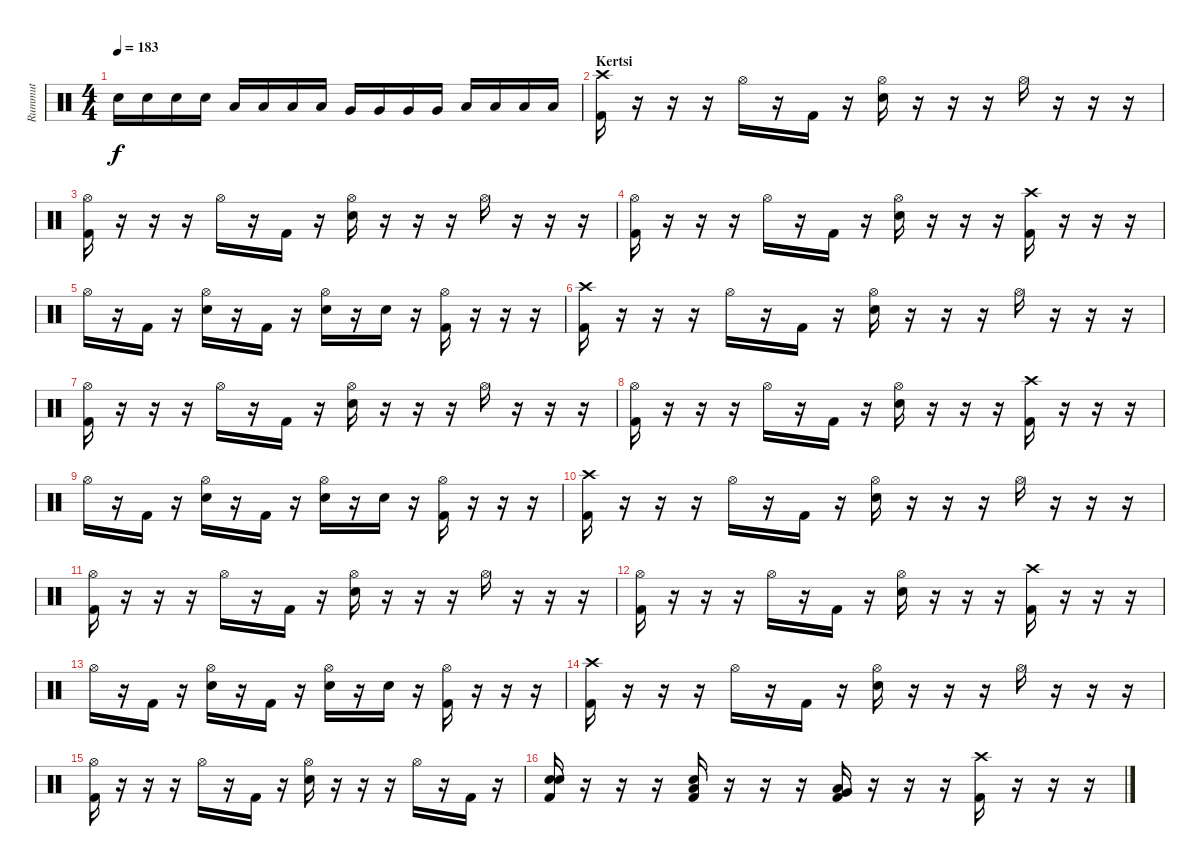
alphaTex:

\track ("Rummut" "Rummut") {instrument percussion}
\staff {score}
\articulation defaults
\ts (4 4)
\tempo 183
\clef neutral
\ks c "Electric Snare (hit)".16{dy f} "Electric Snare (hit)".16 "Electric Snare (hit)".16 "Electric Snare (hit)".16 "Low Tom (hit)".16 "Low Tom (hit)".16 "Low Tom (hit)".16 "Low Tom (hit)".16 "Very Low Tom (hit)".16 "Very Low Tom (hit)".16 "Very Low Tom (hit)".16 "Very Low Tom (hit)".16 "Low Floor Tom (hit)".16 "Low Floor Tom (hit)".16 "Low Floor Tom (hit)".16 "Low Floor Tom (hit)".16
|
\section ("" "Kertsi")
("Crash high (hit)" "Kick (hit) 2").16 r.16 r.16 r.16 "Hi-Hat (open)".16 r.16 "Kick (hit) 2".16 r.16 ("Hi-Hat (open)" "Electric Snare (hit)").16 r.16 r.16 r.16 "Hi-Hat (open)".16 r.16 r.16 r.16 |
("Hi-Hat (open)" "Kick (hit) 2").16 r.16 r.16 r.16 "Hi-Hat (open)".16 r.16 "Kick (hit) 2".16 r.16 ("Hi-Hat (open)" "Electric Snare (hit)").16 r.16 r.16 r.16 "Hi-Hat (open)".16 r.16 r.16 r.16 |
("Hi-Hat (open)" "Kick (hit) 2").16 r.16 r.16 r.16 "Hi-Hat (open)".16 r.16 "Kick (hit) 2".16 r.16 ("Hi-Hat (open)" "Electric Snare (hit)").16 r.16 r.16 r.16 ("Crash high (hit)" "Kick (hit) 2").16 r.16 r.16 r.16 |
"Hi-Hat (open)".16 r.16 "Kick (hit) 2".16 r.16 ("Hi-Hat (open)" "Electric Snare (hit)").16 r.16 "Kick (hit) 2".16 r.16 ("Hi-Hat (open)" "Electric Snare (hit)").16 r.16 "Electric Snare (hit)".16 r.16 ("Hi-Hat (open)" "Kick (hit) 2").16 r.16 r.16 r.16 |
("Crash high (hit)" "Kick (hit) 2").16 r.16 r.16 r.16 "Hi-Hat (open)".16 r.16 "Kick (hit) 2".16 r.16 ("Hi-Hat (open)" "Electric Snare (hit)").16 r.16 r.16 r.16 "Hi-Hat (open)".16 r.16 r.16 r.16 |
("Hi-Hat (open)" "Kick (hit) 2").16 r.16 r.16 r.16 "Hi-Hat (open)".16 r.16 "Kick (hit) 2".16 r.16 ("Hi-Hat (open)" "Electric Snare (hit)").16 r.16 r.16 r.16 "Hi-Hat (open)".16 r.16 r.16 r.16 |
("Hi-Hat (open)" "Kick (hit) 2").16 r.16 r.16 r.16 "Hi-Hat (open)".16 r.16 "Kick (hit) 2".16 r.16 ("Hi-Hat (open)" "Electric Snare (hit)").16 r.16 r.16 r.16 ("Crash high (hit)" "Kick (hit) 2").16 r.16 r.16 r.16 |
"Hi-Hat (open)".16 r.16 "Kick (hit) 2".16 r.16 ("Hi-Hat (open)" "Electric Snare (hit)").16 r.16 "Kick (hit) 2".16 r.16 ("Hi-Hat (open)" "Electric Snare (hit)").16 r.16 "Electric Snare (hit)".16 r.16 ("Hi-Hat (open)" "Kick (hit) 2").16 r.16 r.16 r.16 |
("Crash high (hit)" "Kick (hit) 2").16 r.16 r.16 r.16 "Hi-Hat (open)".16 r.16 "Kick (hit) 2".16 r.16 ("Hi-Hat (open)" "Electric Snare (hit)").16 r.16 r.16 r.16 "Hi-Hat (open)".16 r.16 r.16 r.16 |
("Hi-Hat (open)" "Kick (hit) 2").16 r.16 r.16 r.16 "Hi-Hat (open)".16 r.16 "Kick (hit) 2".16 r.16 ("Hi-Hat (open)" "Electric Snare (hit)").16 r.16 r.16 r.16 "Hi-Hat (open)".16 r.16 r.16 r.16 |
("Hi-Hat (open)" "Kick (hit) 2").16 r.16 r.16 r.16 "Hi-Hat (open)".16 r.16 "Kick (hit) 2".16 r.16 ("Hi-Hat (open)" "Electric Snare (hit)").16 r.16 r.16 r.16 ("Crash high (hit)" "Kick (hit) 2").16 r.16 r.16 r.16 |
"Hi-Hat (open)".16 r.16 "Kick (hit) 2".16 r.16 ("Hi-Hat (open)" "Electric Snare (hit)").16 r.16 "Kick (hit) 2".16 r.16 ("Hi-Hat (open)" "Electric Snare (hit)").16 r.16 "Electric Snare (hit)".16 r.16 ("Hi-Hat (open)" "Kick (hit) 2").16 r.16 r.16 r.16 |
("Crash high (hit)" "Kick (hit) 2").16 r.16 r.16 r.16 "Hi-Hat (open)".16 r.16 "Kick (hit) 2".16 r.16 ("Hi-Hat (open)" "Electric Snare (hit)").16 r.16 r.16 r.16 "Hi-Hat (open)".16 r.16 r.16 r.16 |
("Hi-Hat (open)" "Kick (hit) 2").16 r.16 r.16 r.16 "Hi-Hat (open)".16 r.16 "Kick (hit) 2".16 r.16 ("Hi-Hat (open)" "Electric Snare (hit)").16 r.16 r.16 r.16 "Hi-Hat (open)".16 r.16 "Kick (hit) 2".16 r.16 |
("Electric Snare (hit)" "Electric Snare (hit)" "Kick (hit) 2").16 r.16 r.16 r.16 ("Electric Snare (hit)" "Low Tom (hit)" "Kick (hit) 2").16 r.16 r.16 r.16 ("Low Tom (hit)" "Very Low Tom (hit)" "Kick (hit) 2").16 r.16 r.16 r.16 ("Crash high (hit)" "Kick (hit) 2").16 r.16 r.16 r.16
